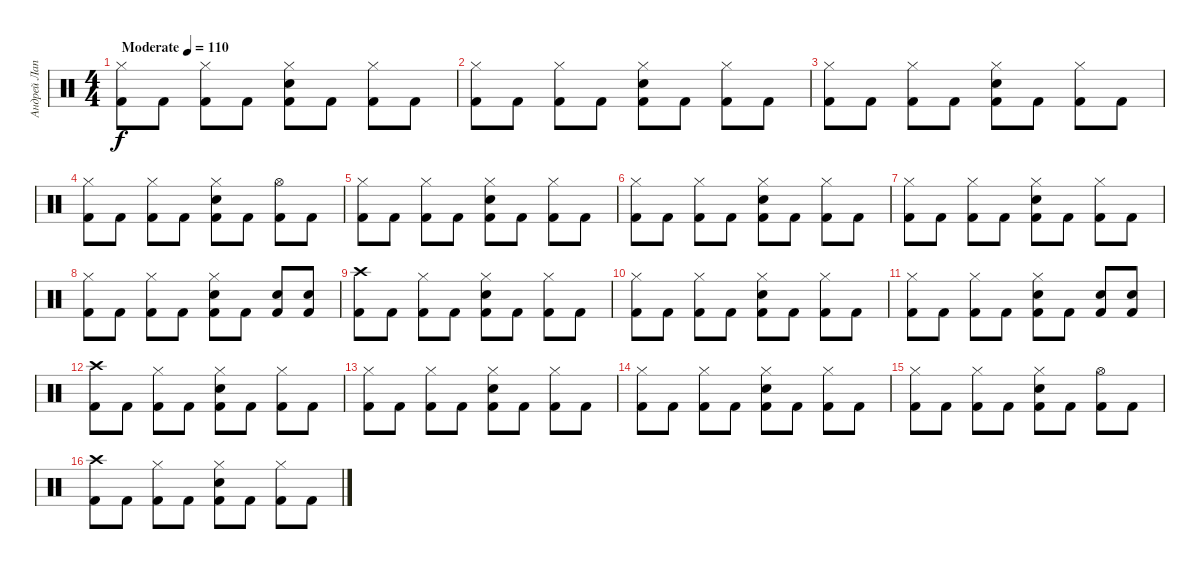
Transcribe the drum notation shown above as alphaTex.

\track ("Андрей Лаптев" "Андрей Лап") {instrument percussion}
\staff {score}
\articulation defaults
\ts (4 4)
\tempo (110 "Moderate")
\clef neutral
\ks c
("Hi-Hat (closed)" "Kick (hit) 2").8{dy f volume 0} "Kick (hit) 2".8 ("Hi-Hat (closed)" "Kick (hit) 2").8 "Kick (hit) 2".8 ("Hi-Hat (closed)" "Electric Snare (hit)" "Kick (hit) 2").8 "Kick (hit) 2".8 ("Hi-Hat (closed)" "Kick (hit) 2").8 "Kick (hit) 2".8 |
("Hi-Hat (closed)" "Kick (hit) 2").8{volume 7} "Kick (hit) 2".8 ("Hi-Hat (closed)" "Kick (hit) 2").8 "Kick (hit) 2".8 ("Hi-Hat (closed)" "Electric Snare (hit)" "Kick (hit) 2").8 "Kick (hit) 2".8 ("Hi-Hat (closed)" "Kick (hit) 2").8 "Kick (hit) 2".8 |
("Hi-Hat (closed)" "Kick (hit) 2").8 "Kick (hit) 2".8 ("Hi-Hat (closed)" "Kick (hit) 2").8 "Kick (hit) 2".8 ("Hi-Hat (closed)" "Electric Snare (hit)" "Kick (hit) 2").8 "Kick (hit) 2".8 ("Hi-Hat (closed)" "Kick (hit) 2").8 "Kick (hit) 2".8 |
("Hi-Hat (closed)" "Kick (hit) 2").8 "Kick (hit) 2".8 ("Hi-Hat (closed)" "Kick (hit) 2").8 "Kick (hit) 2".8 ("Hi-Hat (closed)" "Electric Snare (hit)" "Kick (hit) 2").8 "Kick (hit) 2".8 ("Hi-Hat (open)" "Kick (hit) 2").8 "Kick (hit) 2".8 |
("Hi-Hat (closed)" "Kick (hit) 2").8 "Kick (hit) 2".8 ("Hi-Hat (closed)" "Kick (hit) 2").8 "Kick (hit) 2".8 ("Hi-Hat (closed)" "Electric Snare (hit)" "Kick (hit) 2").8 "Kick (hit) 2".8 ("Hi-Hat (closed)" "Kick (hit) 2").8 "Kick (hit) 2".8 |
("Hi-Hat (closed)" "Kick (hit) 2").8{volume 10} "Kick (hit) 2".8 ("Hi-Hat (closed)" "Kick (hit) 2").8 "Kick (hit) 2".8 ("Hi-Hat (closed)" "Electric Snare (hit)" "Kick (hit) 2").8 "Kick (hit) 2".8 ("Hi-Hat (closed)" "Kick (hit) 2").8 "Kick (hit) 2".8 |
("Hi-Hat (closed)" "Kick (hit) 2").8 "Kick (hit) 2".8 ("Hi-Hat (closed)" "Kick (hit) 2").8 "Kick (hit) 2".8 ("Hi-Hat (closed)" "Electric Snare (hit)" "Kick (hit) 2").8 "Kick (hit) 2".8 ("Hi-Hat (closed)" "Kick (hit) 2").8 "Kick (hit) 2".8 |
("Hi-Hat (closed)" "Kick (hit) 2").8 "Kick (hit) 2".8 ("Hi-Hat (closed)" "Kick (hit) 2").8 "Kick (hit) 2".8 ("Hi-Hat (closed)" "Electric Snare (hit)" "Kick (hit) 2").8 "Kick (hit) 2".8 ("Electric Snare (hit)" "Kick (hit) 2").8 ("Electric Snare (hit)" "Kick (hit) 2").8 |
("Crash high (hit)" "Kick (hit) 2").8 "Kick (hit) 2".8 ("Hi-Hat (closed)" "Kick (hit) 2").8 "Kick (hit) 2".8 ("Hi-Hat (closed)" "Electric Snare (hit)" "Kick (hit) 2").8 "Kick (hit) 2".8 ("Hi-Hat (closed)" "Kick (hit) 2").8 "Kick (hit) 2".8 |
("Hi-Hat (closed)" "Kick (hit) 2").8 "Kick (hit) 2".8 ("Hi-Hat (closed)" "Kick (hit) 2").8 "Kick (hit) 2".8 ("Hi-Hat (closed)" "Electric Snare (hit)" "Kick (hit) 2").8 "Kick (hit) 2".8 ("Hi-Hat (closed)" "Kick (hit) 2").8 "Kick (hit) 2".8 |
("Hi-Hat (closed)" "Kick (hit) 2").8 "Kick (hit) 2".8 ("Hi-Hat (closed)" "Kick (hit) 2").8 "Kick (hit) 2".8 ("Hi-Hat (closed)" "Electric Snare (hit)" "Kick (hit) 2").8 "Kick (hit) 2".8 ("Electric Snare (hit)" "Kick (hit) 2").8 ("Electric Snare (hit)" "Kick (hit) 2").8 |
("Crash high (hit)" "Kick (hit) 2").8{volume 14} "Kick (hit) 2".8 ("Hi-Hat (closed)" "Kick (hit) 2").8 "Kick (hit) 2".8 ("Hi-Hat (closed)" "Electric Snare (hit)" "Kick (hit) 2").8 "Kick (hit) 2".8 ("Hi-Hat (closed)" "Kick (hit) 2").8 "Kick (hit) 2".8 |
("Hi-Hat (closed)" "Kick (hit) 2").8 "Kick (hit) 2".8 ("Hi-Hat (closed)" "Kick (hit) 2").8 "Kick (hit) 2".8 ("Hi-Hat (closed)" "Electric Snare (hit)" "Kick (hit) 2").8 "Kick (hit) 2".8 ("Hi-Hat (closed)" "Kick (hit) 2").8 "Kick (hit) 2".8 |
("Hi-Hat (closed)" "Kick (hit) 2").8 "Kick (hit) 2".8 ("Hi-Hat (closed)" "Kick (hit) 2").8 "Kick (hit) 2".8 ("Hi-Hat (closed)" "Electric Snare (hit)" "Kick (hit) 2").8 "Kick (hit) 2".8 ("Hi-Hat (closed)" "Kick (hit) 2").8 "Kick (hit) 2".8 |
("Hi-Hat (closed)" "Kick (hit) 2").8 "Kick (hit) 2".8 ("Hi-Hat (closed)" "Kick (hit) 2").8 "Kick (hit) 2".8 ("Hi-Hat (closed)" "Electric Snare (hit)" "Kick (hit) 2").8 "Kick (hit) 2".8 ("Hi-Hat (open)" "Kick (hit) 2").8 "Kick (hit) 2".8 |
("Crash high (hit)" "Kick (hit) 2").8 "Kick (hit) 2".8 ("Hi-Hat (closed)" "Kick (hit) 2").8 "Kick (hit) 2".8 ("Hi-Hat (closed)" "Electric Snare (hit)" "Kick (hit) 2").8 "Kick (hit) 2".8 ("Hi-Hat (closed)" "Kick (hit) 2").8 "Kick (hit) 2".8
